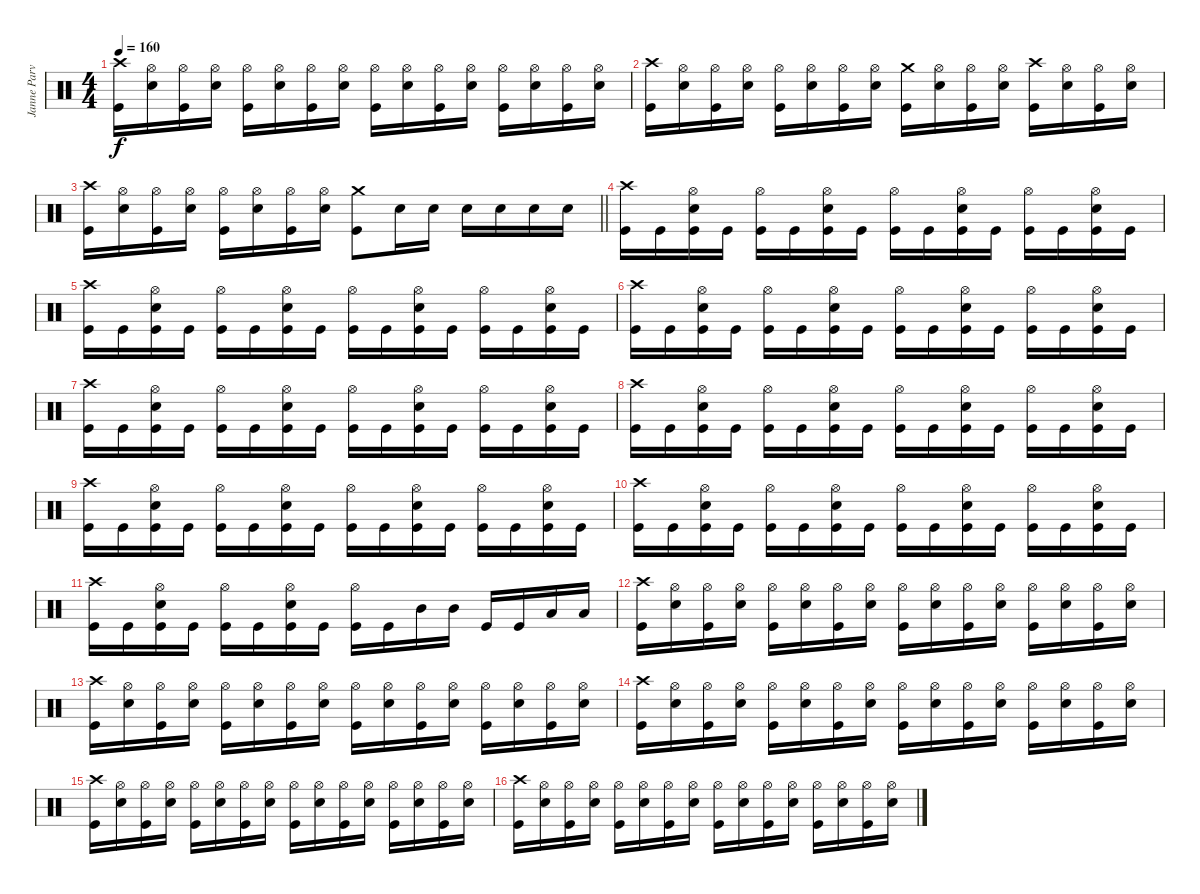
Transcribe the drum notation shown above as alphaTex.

\track ("Janne Parviainen" "Janne Parv") {instrument percussion}
\staff {score}
\articulation defaults
\ts (4 4)
\tempo 160
\clef neutral
\ks c
("Crash high (hit)" "Kick (hit)").16{dy f} ("Hi-Hat (open)" "Electric Snare (hit)").16 ("Hi-Hat (open)" "Kick (hit)").16 ("Hi-Hat (open)" "Electric Snare (hit)").16 ("Hi-Hat (open)" "Kick (hit)").16 ("Hi-Hat (open)" "Electric Snare (hit)").16 ("Hi-Hat (open)" "Kick (hit)").16 ("Hi-Hat (open)" "Electric Snare (hit)").16 ("Hi-Hat (open)" "Kick (hit)").16 ("Hi-Hat (open)" "Electric Snare (hit)").16 ("Hi-Hat (open)" "Kick (hit)").16 ("Hi-Hat (open)" "Electric Snare (hit)").16 ("Hi-Hat (open)" "Kick (hit)").16 ("Hi-Hat (open)" "Electric Snare (hit)").16 ("Hi-Hat (open)" "Kick (hit)").16 ("Hi-Hat (open)" "Electric Snare (hit)").16 |
("Crash high (hit)" "Kick (hit)").16 ("Hi-Hat (open)" "Electric Snare (hit)").16 ("Hi-Hat (open)" "Kick (hit)").16 ("Hi-Hat (open)" "Electric Snare (hit)").16 ("Hi-Hat (open)" "Kick (hit)").16 ("Hi-Hat (open)" "Electric Snare (hit)").16 ("Hi-Hat (open)" "Kick (hit)").16 ("Hi-Hat (open)" "Electric Snare (hit)").16 ("Crash medium (hit)" "Kick (hit)").16 ("Hi-Hat (open)" "Electric Snare (hit)").16 ("Hi-Hat (open)" "Kick (hit)").16 ("Hi-Hat (open)" "Electric Snare (hit)").16 ("Crash high (hit)" "Kick (hit)").16 ("Hi-Hat (open)" "Electric Snare (hit)").16 ("Hi-Hat (open)" "Kick (hit)").16 ("Hi-Hat (open)" "Electric Snare (hit)").16 |
\barLineRight lightlight
("Crash high (hit)" "Kick (hit)").16 ("Hi-Hat (open)" "Electric Snare (hit)").16 ("Hi-Hat (open)" "Kick (hit)").16 ("Hi-Hat (open)" "Electric Snare (hit)").16 ("Hi-Hat (open)" "Kick (hit)").16 ("Hi-Hat (open)" "Electric Snare (hit)").16 ("Hi-Hat (open)" "Kick (hit)").16 ("Hi-Hat (open)" "Electric Snare (hit)").16 ("Crash medium (hit)" "Kick (hit)").8 "Electric Snare (hit)".16 "Electric Snare (hit)".16 "Electric Snare (hit)".16 "Electric Snare (hit)".16 "Electric Snare (hit)".16 "Electric Snare (hit)".16 |
("Crash high (hit)" "Kick (hit)").16 "Kick (hit)".16 ("Hi-Hat (open)" "Electric Snare (hit)" "Kick (hit)").16 "Kick (hit)".16 ("Hi-Hat (open)" "Kick (hit)").16 "Kick (hit)".16 ("Hi-Hat (open)" "Electric Snare (hit)" "Kick (hit)").16 "Kick (hit)".16 ("Hi-Hat (open)" "Kick (hit)").16 "Kick (hit)".16 ("Hi-Hat (open)" "Electric Snare (hit)" "Kick (hit)").16 "Kick (hit)".16 ("Hi-Hat (open)" "Kick (hit)").16 "Kick (hit)".16 ("Hi-Hat (open)" "Electric Snare (hit)" "Kick (hit)").16 "Kick (hit)".16 |
("Crash high (hit)" "Kick (hit)").16 "Kick (hit)".16 ("Hi-Hat (open)" "Electric Snare (hit)" "Kick (hit)").16 "Kick (hit)".16 ("Hi-Hat (open)" "Kick (hit)").16 "Kick (hit)".16 ("Hi-Hat (open)" "Electric Snare (hit)" "Kick (hit)").16 "Kick (hit)".16 ("Hi-Hat (open)" "Kick (hit)").16 "Kick (hit)".16 ("Hi-Hat (open)" "Electric Snare (hit)" "Kick (hit)").16 "Kick (hit)".16 ("Hi-Hat (open)" "Kick (hit)").16 "Kick (hit)".16 ("Hi-Hat (open)" "Electric Snare (hit)" "Kick (hit)").16 "Kick (hit)".16 |
("Crash high (hit)" "Kick (hit)").16 "Kick (hit)".16 ("Hi-Hat (open)" "Electric Snare (hit)" "Kick (hit)").16 "Kick (hit)".16 ("Hi-Hat (open)" "Kick (hit)").16 "Kick (hit)".16 ("Hi-Hat (open)" "Electric Snare (hit)" "Kick (hit)").16 "Kick (hit)".16 ("Hi-Hat (open)" "Kick (hit)").16 "Kick (hit)".16 ("Hi-Hat (open)" "Electric Snare (hit)" "Kick (hit)").16 "Kick (hit)".16 ("Hi-Hat (open)" "Kick (hit)").16 "Kick (hit)".16 ("Hi-Hat (open)" "Electric Snare (hit)" "Kick (hit)").16 "Kick (hit)".16 |
("Crash high (hit)" "Kick (hit)").16 "Kick (hit)".16 ("Hi-Hat (open)" "Electric Snare (hit)" "Kick (hit)").16 "Kick (hit)".16 ("Hi-Hat (open)" "Kick (hit)").16 "Kick (hit)".16 ("Hi-Hat (open)" "Electric Snare (hit)" "Kick (hit)").16 "Kick (hit)".16 ("Hi-Hat (open)" "Kick (hit)").16 "Kick (hit)".16 ("Hi-Hat (open)" "Electric Snare (hit)" "Kick (hit)").16 "Kick (hit)".16 ("Hi-Hat (open)" "Kick (hit)").16 "Kick (hit)".16 ("Hi-Hat (open)" "Electric Snare (hit)" "Kick (hit)").16 "Kick (hit)".16 |
("Crash high (hit)" "Kick (hit)").16 "Kick (hit)".16 ("Hi-Hat (open)" "Electric Snare (hit)" "Kick (hit)").16 "Kick (hit)".16 ("Hi-Hat (open)" "Kick (hit)").16 "Kick (hit)".16 ("Hi-Hat (open)" "Electric Snare (hit)" "Kick (hit)").16 "Kick (hit)".16 ("Hi-Hat (open)" "Kick (hit)").16 "Kick (hit)".16 ("Hi-Hat (open)" "Electric Snare (hit)" "Kick (hit)").16 "Kick (hit)".16 ("Hi-Hat (open)" "Kick (hit)").16 "Kick (hit)".16 ("Hi-Hat (open)" "Electric Snare (hit)" "Kick (hit)").16 "Kick (hit)".16 |
("Crash high (hit)" "Kick (hit)").16 "Kick (hit)".16 ("Hi-Hat (open)" "Electric Snare (hit)" "Kick (hit)").16 "Kick (hit)".16 ("Hi-Hat (open)" "Kick (hit)").16 "Kick (hit)".16 ("Hi-Hat (open)" "Electric Snare (hit)" "Kick (hit)").16 "Kick (hit)".16 ("Hi-Hat (open)" "Kick (hit)").16 "Kick (hit)".16 ("Hi-Hat (open)" "Electric Snare (hit)" "Kick (hit)").16 "Kick (hit)".16 ("Hi-Hat (open)" "Kick (hit)").16 "Kick (hit)".16 ("Hi-Hat (open)" "Electric Snare (hit)" "Kick (hit)").16 "Kick (hit)".16 |
("Crash high (hit)" "Kick (hit)").16 "Kick (hit)".16 ("Hi-Hat (open)" "Electric Snare (hit)" "Kick (hit)").16 "Kick (hit)".16 ("Hi-Hat (open)" "Kick (hit)").16 "Kick (hit)".16 ("Hi-Hat (open)" "Electric Snare (hit)" "Kick (hit)").16 "Kick (hit)".16 ("Hi-Hat (open)" "Kick (hit)").16 "Kick (hit)".16 ("Hi-Hat (open)" "Electric Snare (hit)" "Kick (hit)").16 "Kick (hit)".16 ("Hi-Hat (open)" "Kick (hit)").16 "Kick (hit)".16 ("Hi-Hat (open)" "Electric Snare (hit)" "Kick (hit)").16 "Kick (hit)".16 |
("Crash high (hit)" "Kick (hit)").16 "Kick (hit)".16 ("Hi-Hat (open)" "Electric Snare (hit)" "Kick (hit)").16 "Kick (hit)".16 ("Hi-Hat (open)" "Kick (hit)").16 "Kick (hit)".16 ("Hi-Hat (open)" "Electric Snare (hit)" "Kick (hit)").16 "Kick (hit)".16 ("Hi-Hat (open)" "Kick (hit)").16 "Kick (hit)".16 "Mid Tom (hit)".16 "Mid Tom (hit)".16 "Kick (hit)".16 "Kick (hit)".16 "Low Tom (hit)".16 "Low Tom (hit)".16 |
("Crash high (hit)" "Kick (hit)").16 ("Hi-Hat (open)" "Electric Snare (hit)").16 ("Hi-Hat (open)" "Kick (hit)").16 ("Hi-Hat (open)" "Electric Snare (hit)").16 ("Hi-Hat (open)" "Kick (hit)").16 ("Hi-Hat (open)" "Electric Snare (hit)").16 ("Hi-Hat (open)" "Kick (hit)").16 ("Hi-Hat (open)" "Electric Snare (hit)").16 ("Hi-Hat (open)" "Kick (hit)").16 ("Hi-Hat (open)" "Electric Snare (hit)").16 ("Hi-Hat (open)" "Kick (hit)").16 ("Hi-Hat (open)" "Electric Snare (hit)").16 ("Hi-Hat (open)" "Kick (hit)").16 ("Hi-Hat (open)" "Electric Snare (hit)").16 ("Hi-Hat (open)" "Kick (hit)").16 ("Hi-Hat (open)" "Electric Snare (hit)").16 |
("Crash high (hit)" "Kick (hit)").16 ("Hi-Hat (open)" "Electric Snare (hit)").16 ("Hi-Hat (open)" "Kick (hit)").16 ("Hi-Hat (open)" "Electric Snare (hit)").16 ("Hi-Hat (open)" "Kick (hit)").16 ("Hi-Hat (open)" "Electric Snare (hit)").16 ("Hi-Hat (open)" "Kick (hit)").16 ("Hi-Hat (open)" "Electric Snare (hit)").16 ("Hi-Hat (open)" "Kick (hit)").16 ("Hi-Hat (open)" "Electric Snare (hit)").16 ("Hi-Hat (open)" "Kick (hit)").16 ("Hi-Hat (open)" "Electric Snare (hit)").16 ("Hi-Hat (open)" "Kick (hit)").16 ("Hi-Hat (open)" "Electric Snare (hit)").16 ("Hi-Hat (open)" "Kick (hit)").16 ("Hi-Hat (open)" "Electric Snare (hit)").16 |
("Crash high (hit)" "Kick (hit)").16 ("Hi-Hat (open)" "Electric Snare (hit)").16 ("Hi-Hat (open)" "Kick (hit)").16 ("Hi-Hat (open)" "Electric Snare (hit)").16 ("Hi-Hat (open)" "Kick (hit)").16 ("Hi-Hat (open)" "Electric Snare (hit)").16 ("Hi-Hat (open)" "Kick (hit)").16 ("Hi-Hat (open)" "Electric Snare (hit)").16 ("Hi-Hat (open)" "Kick (hit)").16 ("Hi-Hat (open)" "Electric Snare (hit)").16 ("Hi-Hat (open)" "Kick (hit)").16 ("Hi-Hat (open)" "Electric Snare (hit)").16 ("Hi-Hat (open)" "Kick (hit)").16 ("Hi-Hat (open)" "Electric Snare (hit)").16 ("Hi-Hat (open)" "Kick (hit)").16 ("Hi-Hat (open)" "Electric Snare (hit)").16 |
("Crash high (hit)" "Kick (hit)").16 ("Hi-Hat (open)" "Electric Snare (hit)").16 ("Hi-Hat (open)" "Kick (hit)").16 ("Hi-Hat (open)" "Electric Snare (hit)").16 ("Hi-Hat (open)" "Kick (hit)").16 ("Hi-Hat (open)" "Electric Snare (hit)").16 ("Hi-Hat (open)" "Kick (hit)").16 ("Hi-Hat (open)" "Electric Snare (hit)").16 ("Hi-Hat (open)" "Kick (hit)").16 ("Hi-Hat (open)" "Electric Snare (hit)").16 ("Hi-Hat (open)" "Kick (hit)").16 ("Hi-Hat (open)" "Electric Snare (hit)").16 ("Hi-Hat (open)" "Kick (hit)").16 ("Hi-Hat (open)" "Electric Snare (hit)").16 ("Hi-Hat (open)" "Kick (hit)").16 ("Hi-Hat (open)" "Electric Snare (hit)").16 |
("Crash high (hit)" "Kick (hit)").16 ("Hi-Hat (open)" "Electric Snare (hit)").16 ("Hi-Hat (open)" "Kick (hit)").16 ("Hi-Hat (open)" "Electric Snare (hit)").16 ("Hi-Hat (open)" "Kick (hit)").16 ("Hi-Hat (open)" "Electric Snare (hit)").16 ("Hi-Hat (open)" "Kick (hit)").16 ("Hi-Hat (open)" "Electric Snare (hit)").16 ("Hi-Hat (open)" "Kick (hit)").16 ("Hi-Hat (open)" "Electric Snare (hit)").16 ("Hi-Hat (open)" "Kick (hit)").16 ("Hi-Hat (open)" "Electric Snare (hit)").16 ("Hi-Hat (open)" "Kick (hit)").16 ("Hi-Hat (open)" "Electric Snare (hit)").16 ("Hi-Hat (open)" "Kick (hit)").16 ("Hi-Hat (open)" "Electric Snare (hit)").16
